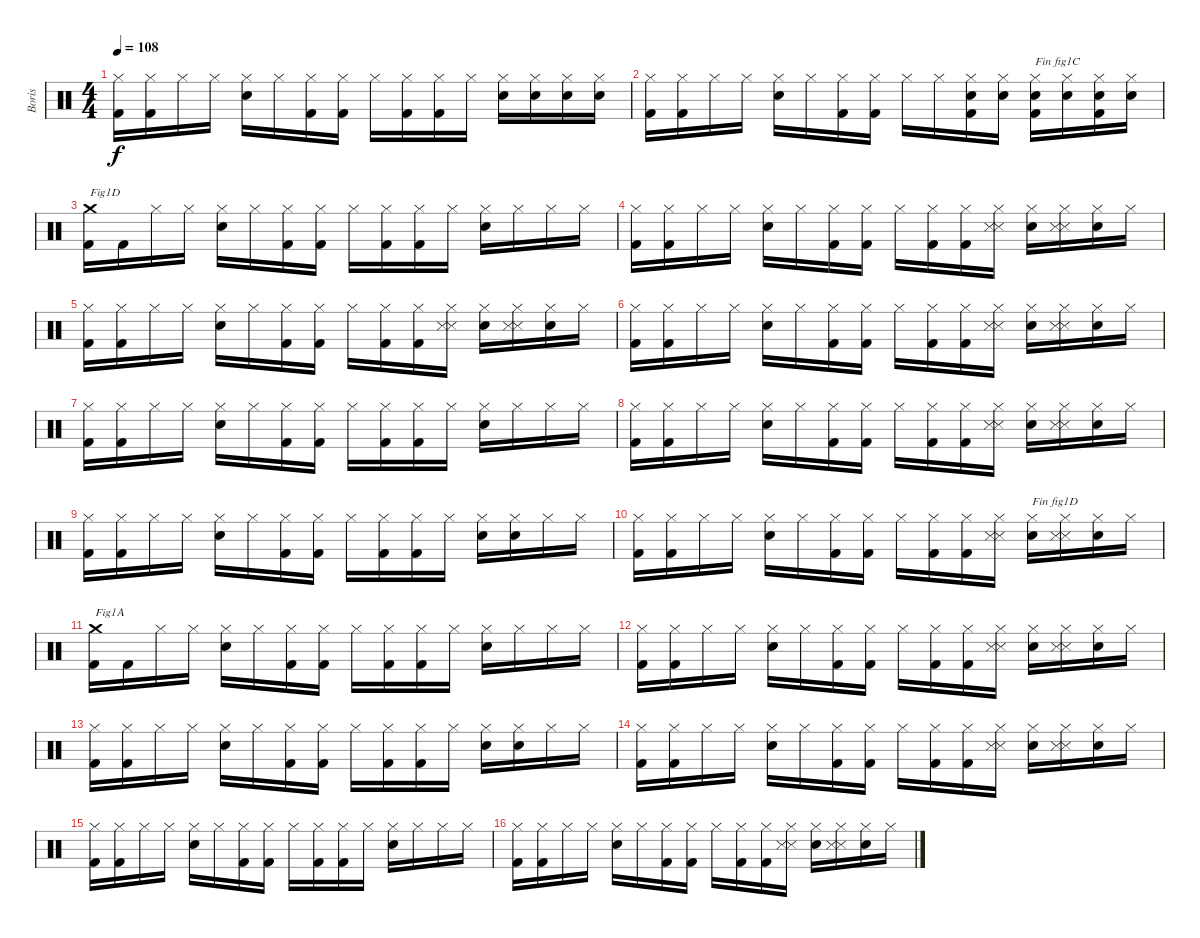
\track ("Boris" "Boris") {instrument percussion}
\staff {score}
\articulation defaults
\ts (4 4)
\tempo 108
\clef neutral
\ks c
("Kick (hit) 2" "Hi-Hat (closed)").16{dy f} ("Kick (hit) 2" "Hi-Hat (closed)").16 "Hi-Hat (closed)".16 "Hi-Hat (closed)".16 ("Electric Snare (hit)" "Hi-Hat (closed)").16 "Hi-Hat (closed)".16 ("Kick (hit) 2" "Hi-Hat (closed)").16 ("Kick (hit) 2" "Hi-Hat (closed)").16 "Hi-Hat (closed)".16 ("Kick (hit) 2" "Hi-Hat (closed)").16 ("Kick (hit) 2" "Hi-Hat (closed)").16 "Hi-Hat (closed)".16 ("Electric Snare (hit)" "Hi-Hat (closed)").16 ("Electric Snare (hit)" "Hi-Hat (closed)").16 ("Electric Snare (hit)" "Hi-Hat (closed)").16 ("Electric Snare (hit)" "Hi-Hat (closed)").16 |
("Kick (hit) 2" "Hi-Hat (closed)").16 ("Kick (hit) 2" "Hi-Hat (closed)").16 "Hi-Hat (closed)".16 "Hi-Hat (closed)".16 ("Electric Snare (hit)" "Hi-Hat (closed)").16 "Hi-Hat (closed)".16 ("Kick (hit) 2" "Hi-Hat (closed)").16 ("Kick (hit) 2" "Hi-Hat (closed)").16 "Hi-Hat (closed)".16 "Hi-Hat (closed)".16 ("Kick (hit) 2" "Electric Snare (hit)" "Hi-Hat (closed)").16 ("Electric Snare (hit)" "Hi-Hat (closed)").16 ("Kick (hit) 2" "Electric Snare (hit)" "Hi-Hat (closed)").16{txt "Fin fig1C"} ("Electric Snare (hit)" "Hi-Hat (closed)").16 ("Kick (hit) 2" "Electric Snare (hit)" "Hi-Hat (closed)").16 ("Electric Snare (hit)" "Hi-Hat (closed)").16 |
("Kick (hit) 2" "Crash medium (hit)").16{txt "Fig1D"} "Kick (hit) 2".16 "Hi-Hat (closed)".16 "Hi-Hat (closed)".16 ("Electric Snare (hit)" "Hi-Hat (closed)").16 "Hi-Hat (closed)".16 ("Kick (hit) 2" "Hi-Hat (closed)").16 ("Kick (hit) 2" "Hi-Hat (closed)").16 "Hi-Hat (closed)".16 ("Kick (hit) 2" "Hi-Hat (closed)").16 ("Kick (hit) 2" "Hi-Hat (closed)").16 "Hi-Hat (closed)".16 ("Electric Snare (hit)" "Hi-Hat (closed)").16 "Hi-Hat (closed)".16 "Hi-Hat (closed)".16 "Hi-Hat (closed)".16 |
("Kick (hit) 2" "Hi-Hat (closed)").16 ("Kick (hit) 2" "Hi-Hat (closed)").16 "Hi-Hat (closed)".16 "Hi-Hat (closed)".16 ("Electric Snare (hit)" "Hi-Hat (closed)").16 "Hi-Hat (closed)".16 ("Kick (hit) 2" "Hi-Hat (closed)").16 ("Kick (hit) 2" "Hi-Hat (closed)").16 "Hi-Hat (closed)".16 ("Kick (hit) 2" "Hi-Hat (closed)").16 ("Kick (hit) 2" "Hi-Hat (closed)").16 ("Metronome (hit)" "Snare (side stick) 3" "Hi-Hat (closed)").16 ("Electric Snare (hit)" "Hi-Hat (closed)").16 ("Metronome (hit)" "Snare (side stick) 3" "Hi-Hat (closed)").16 ("Electric Snare (hit)" "Hi-Hat (closed)").16 "Hi-Hat (closed)".16 |
("Kick (hit) 2" "Hi-Hat (closed)").16 ("Kick (hit) 2" "Hi-Hat (closed)").16 "Hi-Hat (closed)".16 "Hi-Hat (closed)".16 ("Electric Snare (hit)" "Hi-Hat (closed)").16 "Hi-Hat (closed)".16 ("Kick (hit) 2" "Hi-Hat (closed)").16 ("Kick (hit) 2" "Hi-Hat (closed)").16 "Hi-Hat (closed)".16 ("Kick (hit) 2" "Hi-Hat (closed)").16 ("Kick (hit) 2" "Hi-Hat (closed)").16 ("Metronome (hit)" "Snare (side stick) 3" "Hi-Hat (closed)").16 ("Electric Snare (hit)" "Hi-Hat (closed)").16 ("Metronome (hit)" "Snare (side stick) 3" "Hi-Hat (closed)").16 ("Electric Snare (hit)" "Hi-Hat (closed)").16 "Hi-Hat (closed)".16 |
("Kick (hit) 2" "Hi-Hat (closed)").16 ("Kick (hit) 2" "Hi-Hat (closed)").16 "Hi-Hat (closed)".16 "Hi-Hat (closed)".16 ("Electric Snare (hit)" "Hi-Hat (closed)").16 "Hi-Hat (closed)".16 ("Kick (hit) 2" "Hi-Hat (closed)").16 ("Kick (hit) 2" "Hi-Hat (closed)").16 "Hi-Hat (closed)".16 ("Kick (hit) 2" "Hi-Hat (closed)").16 ("Kick (hit) 2" "Hi-Hat (closed)").16 ("Metronome (hit)" "Snare (side stick) 3" "Hi-Hat (closed)").16 ("Electric Snare (hit)" "Hi-Hat (closed)").16 ("Metronome (hit)" "Snare (side stick) 3" "Hi-Hat (closed)").16 ("Electric Snare (hit)" "Hi-Hat (closed)").16 "Hi-Hat (closed)".16 |
("Kick (hit) 2" "Hi-Hat (closed)").16 ("Kick (hit) 2" "Hi-Hat (closed)").16 "Hi-Hat (closed)".16 "Hi-Hat (closed)".16 ("Electric Snare (hit)" "Hi-Hat (closed)").16 "Hi-Hat (closed)".16 ("Kick (hit) 2" "Hi-Hat (closed)").16 ("Kick (hit) 2" "Hi-Hat (closed)").16 "Hi-Hat (closed)".16 ("Kick (hit) 2" "Hi-Hat (closed)").16 ("Kick (hit) 2" "Hi-Hat (closed)").16 "Hi-Hat (closed)".16 ("Electric Snare (hit)" "Hi-Hat (closed)").16 "Hi-Hat (closed)".16 "Hi-Hat (closed)".16 "Hi-Hat (closed)".16 |
("Kick (hit) 2" "Hi-Hat (closed)").16 ("Kick (hit) 2" "Hi-Hat (closed)").16 "Hi-Hat (closed)".16 "Hi-Hat (closed)".16 ("Electric Snare (hit)" "Hi-Hat (closed)").16 "Hi-Hat (closed)".16 ("Kick (hit) 2" "Hi-Hat (closed)").16 ("Kick (hit) 2" "Hi-Hat (closed)").16 "Hi-Hat (closed)".16 ("Kick (hit) 2" "Hi-Hat (closed)").16 ("Kick (hit) 2" "Hi-Hat (closed)").16 ("Metronome (hit)" "Snare (side stick) 3" "Hi-Hat (closed)").16 ("Electric Snare (hit)" "Hi-Hat (closed)").16 ("Metronome (hit)" "Snare (side stick) 3" "Hi-Hat (closed)").16 ("Electric Snare (hit)" "Hi-Hat (closed)").16 "Hi-Hat (closed)".16 |
("Kick (hit) 2" "Hi-Hat (closed)").16 ("Kick (hit) 2" "Hi-Hat (closed)").16 "Hi-Hat (closed)".16 "Hi-Hat (closed)".16 ("Electric Snare (hit)" "Hi-Hat (closed)").16 "Hi-Hat (closed)".16 ("Kick (hit) 2" "Hi-Hat (closed)").16 ("Kick (hit) 2" "Hi-Hat (closed)").16 "Hi-Hat (closed)".16 ("Kick (hit) 2" "Hi-Hat (closed)").16 ("Kick (hit) 2" "Hi-Hat (closed)").16 "Hi-Hat (closed)".16 ("Electric Snare (hit)" "Hi-Hat (closed)").16 ("Electric Snare (hit)" "Hi-Hat (closed)").16 "Hi-Hat (closed)".16 "Hi-Hat (closed)".16 |
("Kick (hit) 2" "Hi-Hat (closed)").16 ("Kick (hit) 2" "Hi-Hat (closed)").16 "Hi-Hat (closed)".16 "Hi-Hat (closed)".16 ("Electric Snare (hit)" "Hi-Hat (closed)").16 "Hi-Hat (closed)".16 ("Kick (hit) 2" "Hi-Hat (closed)").16 ("Kick (hit) 2" "Hi-Hat (closed)").16 "Hi-Hat (closed)".16 ("Kick (hit) 2" "Hi-Hat (closed)").16 ("Kick (hit) 2" "Hi-Hat (closed)").16 ("Metronome (hit)" "Snare (side stick) 3" "Hi-Hat (closed)").16 ("Electric Snare (hit)" "Hi-Hat (closed)").16{txt "Fin fig1D"} ("Metronome (hit)" "Snare (side stick) 3" "Hi-Hat (closed)").16 ("Electric Snare (hit)" "Hi-Hat (closed)").16 "Hi-Hat (closed)".16 |
("Kick (hit) 2" "Crash medium (hit)").16{txt "Fig1A"} "Kick (hit) 2".16 "Hi-Hat (closed)".16 "Hi-Hat (closed)".16 ("Electric Snare (hit)" "Hi-Hat (closed)").16 "Hi-Hat (closed)".16 ("Kick (hit) 2" "Hi-Hat (closed)").16 ("Kick (hit) 2" "Hi-Hat (closed)").16 "Hi-Hat (closed)".16 ("Kick (hit) 2" "Hi-Hat (closed)").16 ("Kick (hit) 2" "Hi-Hat (closed)").16 "Hi-Hat (closed)".16 ("Electric Snare (hit)" "Hi-Hat (closed)").16 "Hi-Hat (closed)".16 "Hi-Hat (closed)".16 "Hi-Hat (closed)".16 |
("Kick (hit) 2" "Hi-Hat (closed)").16 ("Kick (hit) 2" "Hi-Hat (closed)").16 "Hi-Hat (closed)".16 "Hi-Hat (closed)".16 ("Electric Snare (hit)" "Hi-Hat (closed)").16 "Hi-Hat (closed)".16 ("Kick (hit) 2" "Hi-Hat (closed)").16 ("Kick (hit) 2" "Hi-Hat (closed)").16 "Hi-Hat (closed)".16 ("Kick (hit) 2" "Hi-Hat (closed)").16 ("Kick (hit) 2" "Hi-Hat (closed)").16 ("Metronome (hit)" "Snare (side stick) 3" "Hi-Hat (closed)").16 ("Electric Snare (hit)" "Hi-Hat (closed)").16 ("Metronome (hit)" "Snare (side stick) 3" "Hi-Hat (closed)").16 ("Electric Snare (hit)" "Hi-Hat (closed)").16 "Hi-Hat (closed)".16 |
("Kick (hit) 2" "Hi-Hat (closed)").16 ("Kick (hit) 2" "Hi-Hat (closed)").16 "Hi-Hat (closed)".16 "Hi-Hat (closed)".16 ("Electric Snare (hit)" "Hi-Hat (closed)").16 "Hi-Hat (closed)".16 ("Kick (hit) 2" "Hi-Hat (closed)").16 ("Kick (hit) 2" "Hi-Hat (closed)").16 "Hi-Hat (closed)".16 ("Kick (hit) 2" "Hi-Hat (closed)").16 ("Kick (hit) 2" "Hi-Hat (closed)").16 "Hi-Hat (closed)".16 ("Electric Snare (hit)" "Hi-Hat (closed)").16 ("Electric Snare (hit)" "Hi-Hat (closed)").16 "Hi-Hat (closed)".16 "Hi-Hat (closed)".16 |
("Kick (hit) 2" "Hi-Hat (closed)").16 ("Kick (hit) 2" "Hi-Hat (closed)").16 "Hi-Hat (closed)".16 "Hi-Hat (closed)".16 ("Electric Snare (hit)" "Hi-Hat (closed)").16 "Hi-Hat (closed)".16 ("Kick (hit) 2" "Hi-Hat (closed)").16 ("Kick (hit) 2" "Hi-Hat (closed)").16 "Hi-Hat (closed)".16 ("Kick (hit) 2" "Hi-Hat (closed)").16 ("Kick (hit) 2" "Hi-Hat (closed)").16 ("Metronome (hit)" "Snare (side stick) 3" "Hi-Hat (closed)").16 ("Electric Snare (hit)" "Hi-Hat (closed)").16 ("Metronome (hit)" "Snare (side stick) 3" "Hi-Hat (closed)").16 ("Electric Snare (hit)" "Hi-Hat (closed)").16 "Hi-Hat (closed)".16 |
("Kick (hit) 2" "Hi-Hat (closed)").16 ("Kick (hit) 2" "Hi-Hat (closed)").16 "Hi-Hat (closed)".16 "Hi-Hat (closed)".16 ("Electric Snare (hit)" "Hi-Hat (closed)").16 "Hi-Hat (closed)".16 ("Kick (hit) 2" "Hi-Hat (closed)").16 ("Kick (hit) 2" "Hi-Hat (closed)").16 "Hi-Hat (closed)".16 ("Kick (hit) 2" "Hi-Hat (closed)").16 ("Kick (hit) 2" "Hi-Hat (closed)").16 "Hi-Hat (closed)".16 ("Electric Snare (hit)" "Hi-Hat (closed)").16 "Hi-Hat (closed)".16 "Hi-Hat (closed)".16 "Hi-Hat (closed)".16 |
("Kick (hit) 2" "Hi-Hat (closed)").16 ("Kick (hit) 2" "Hi-Hat (closed)").16 "Hi-Hat (closed)".16 "Hi-Hat (closed)".16 ("Electric Snare (hit)" "Hi-Hat (closed)").16 "Hi-Hat (closed)".16 ("Kick (hit) 2" "Hi-Hat (closed)").16 ("Kick (hit) 2" "Hi-Hat (closed)").16 "Hi-Hat (closed)".16 ("Kick (hit) 2" "Hi-Hat (closed)").16 ("Kick (hit) 2" "Hi-Hat (closed)").16 ("Metronome (hit)" "Snare (side stick) 3" "Hi-Hat (closed)").16 ("Electric Snare (hit)" "Hi-Hat (closed)").16 ("Metronome (hit)" "Snare (side stick) 3" "Hi-Hat (closed)").16 ("Electric Snare (hit)" "Hi-Hat (closed)").16 "Hi-Hat (closed)".16
